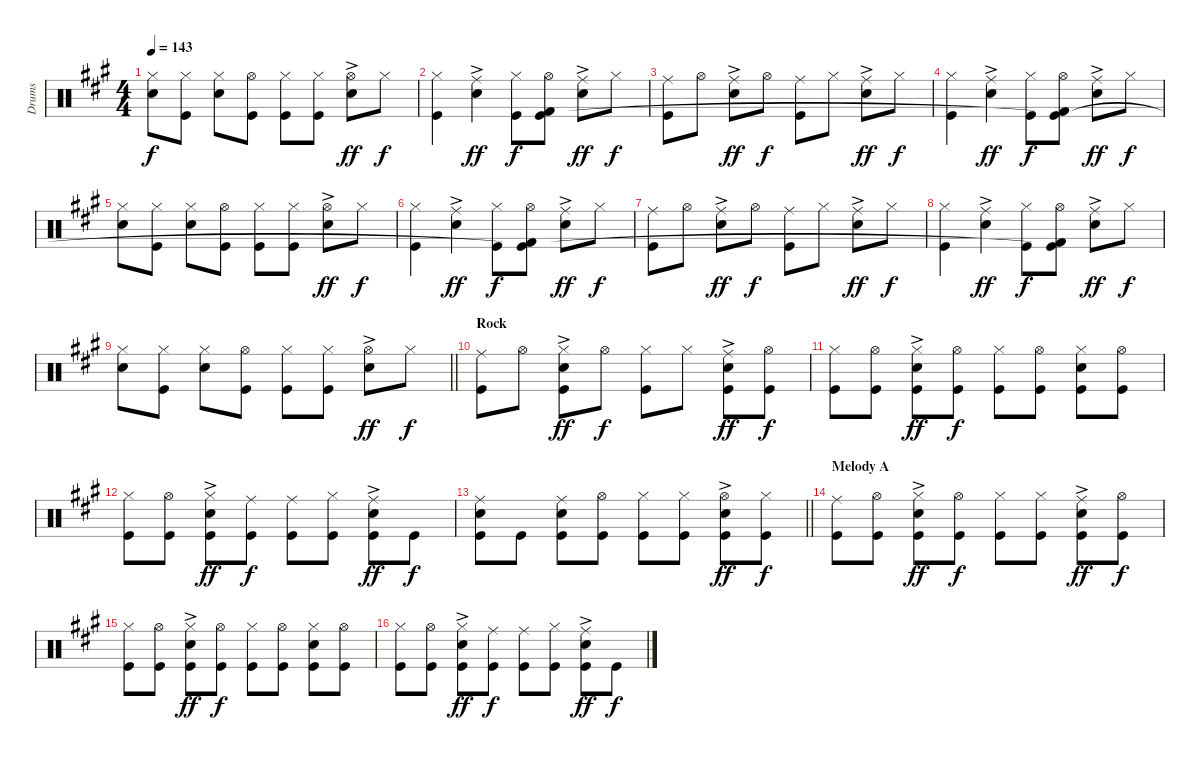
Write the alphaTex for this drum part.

\track ("Drums" "Drums") {instrument percussion}
\staff {score}
\articulation defaults
\ts (4 4)
\tempo 143
\clef neutral
\ks a
("Hi-Hat (closed)" "Snare (hit) 2").8{dy f} ("Hi-Hat (closed)" "Kick (hit)").8 ("Hi-Hat (closed)" "Snare (hit) 2").8 ("Hi-Hat (open)" "Kick (hit)").8 ("Hi-Hat (closed)" "Kick (hit)").8 ("Hi-Hat (closed)" "Kick (hit)").8 ("Hi-Hat (open)" "Snare (hit) 2"{ac}).8{dy ff} "Hi-Hat (closed)".8{dy f} |
("Hi-Hat (closed)" "Kick (hit)").4 ("Ride (middle)" "Snare (hit) 2"{ac}).4{dy ff} ("Hi-Hat (closed)" "Kick (hit)").8{dy f} ("Hi-Hat (open)" "Kick (hit) 2" "Kick (hit)"{t}).8 ("Ride (middle)"{ac} "Snare (hit) 2").8{dy ff} "Hi-Hat (closed)".8{dy f} |
("Ride (middle)" "Kick (hit)").8 "Hi-Hat (open)".8 ("Ride (middle)" "Snare (hit) 2"{ac}).8{dy ff} "Hi-Hat (open)".8{dy f} ("Ride (middle)" "Kick (hit)").8 "Hi-Hat (closed)".8 ("Ride (middle)"{ac} "Snare (hit) 2").8{dy ff} "Hi-Hat (closed)".8{dy f} |
("Hi-Hat (closed)" "Kick (hit)").4 ("Ride (middle)" "Snare (hit) 2"{ac}).4{dy ff} ("Hi-Hat (closed)" "Kick (hit)").8{dy f} ("Hi-Hat (open)" "Kick (hit) 2" "Kick (hit)"{t}).8 ("Ride (middle)"{ac} "Snare (hit) 2").8{dy ff} "Hi-Hat (closed)".8{dy f} |
("Hi-Hat (closed)" "Snare (hit) 2").8 ("Hi-Hat (closed)" "Kick (hit)").8 ("Hi-Hat (closed)" "Snare (hit) 2").8 ("Hi-Hat (open)" "Kick (hit)").8 ("Hi-Hat (closed)" "Kick (hit)").8 ("Hi-Hat (closed)" "Kick (hit)").8 ("Hi-Hat (open)" "Snare (hit) 2"{ac}).8{dy ff} "Hi-Hat (closed)".8{dy f} |
("Hi-Hat (closed)" "Kick (hit)").4 ("Ride (middle)" "Snare (hit) 2"{ac}).4{dy ff} ("Hi-Hat (closed)" "Kick (hit)").8{dy f} ("Hi-Hat (open)" "Kick (hit) 2" "Kick (hit)"{t}).8 ("Ride (middle)"{ac} "Snare (hit) 2").8{dy ff} "Hi-Hat (closed)".8{dy f} |
("Ride (middle)" "Kick (hit)").8 "Hi-Hat (open)".8 ("Ride (middle)" "Snare (hit) 2"{ac}).8{dy ff} "Hi-Hat (open)".8{dy f} ("Ride (middle)" "Kick (hit)").8 "Hi-Hat (closed)".8 ("Ride (middle)"{ac} "Snare (hit) 2").8{dy ff} "Hi-Hat (closed)".8{dy f} |
("Hi-Hat (closed)" "Kick (hit)").4 ("Ride (middle)" "Snare (hit) 2"{ac}).4{dy ff} ("Hi-Hat (closed)" "Kick (hit)").8{dy f} ("Hi-Hat (open)" "Kick (hit) 2" "Kick (hit)"{t}).8 ("Ride (middle)"{ac} "Snare (hit) 2").8{dy ff} "Hi-Hat (closed)".8{dy f} |
\barLineRight lightlight
("Hi-Hat (closed)" "Snare (hit) 2").8 ("Hi-Hat (closed)" "Kick (hit)").8 ("Hi-Hat (closed)" "Snare (hit) 2").8 ("Hi-Hat (open)" "Kick (hit)").8 ("Hi-Hat (closed)" "Kick (hit)").8 ("Hi-Hat (closed)" "Kick (hit)").8 ("Hi-Hat (open)" "Snare (hit) 2"{ac}).8{dy ff} "Hi-Hat (closed)".8{dy f} |
\section ("" "Rock")
("Ride (middle)" "Kick (hit)").8 "Hi-Hat (open)".8 ("Hi-Hat (closed)" "Snare (hit) 2"{ac} "Kick (hit)").8{dy ff} "Hi-Hat (open)".8{dy f} ("Hi-Hat (closed)" "Kick (hit)").8 "Hi-Hat (closed)".8 ("Ride (middle)"{ac} "Snare (hit) 2" "Kick (hit)").8{dy ff} ("Hi-Hat (open)" "Kick (hit)").8{dy f} |
("Hi-Hat (closed)" "Kick (hit)").8 ("Hi-Hat (open)" "Kick (hit)").8 ("Hi-Hat (closed)" "Snare (hit) 2"{ac} "Kick (hit)").8{dy ff} ("Hi-Hat (open)" "Kick (hit)").8{dy f} ("Hi-Hat (closed)" "Kick (hit)").8 ("Hi-Hat (open)" "Kick (hit)").8 ("Hi-Hat (closed)" "Snare (hit) 2" "Kick (hit)").8 ("Hi-Hat (open)" "Kick (hit)").8 |
("Hi-Hat (closed)" "Kick (hit)").8 ("Hi-Hat (open)" "Kick (hit)").8 ("Hi-Hat (closed)" "Snare (hit) 2"{ac} "Kick (hit)").8{dy ff} ("Ride (middle)" "Kick (hit)").8{dy f} ("Ride (middle)" "Kick (hit)").8 ("Hi-Hat (closed)" "Kick (hit)").8 ("Ride (middle)"{ac} "Snare (hit) 2" "Kick (hit)").8{dy ff} "Kick (hit)".8{dy f} |
\barLineRight lightlight
("Ride (middle)" "Snare (hit) 2" "Kick (hit)").8 "Kick (hit)".8 ("Ride (middle)" "Snare (hit) 2" "Kick (hit)").8 ("Hi-Hat (open)" "Kick (hit)").8 ("Hi-Hat (closed)" "Kick (hit)").8 ("Hi-Hat (closed)" "Kick (hit)").8 ("Hi-Hat (open)" "Snare (hit) 2"{ac} "Kick (hit)").8{dy ff} ("Hi-Hat (closed)" "Kick (hit)").8{dy f} |
\section ("" "Melody A")
("Ride (middle)" "Kick (hit)").8 ("Hi-Hat (open)" "Kick (hit)").8 ("Hi-Hat (closed)" "Snare (hit) 2"{ac} "Kick (hit)").8{dy ff} ("Hi-Hat (open)" "Kick (hit)").8{dy f} ("Hi-Hat (closed)" "Kick (hit)").8 ("Hi-Hat (closed)" "Kick (hit)").8 ("Ride (middle)"{ac} "Snare (hit) 2" "Kick (hit)").8{dy ff} ("Hi-Hat (open)" "Kick (hit)").8{dy f} |
("Hi-Hat (closed)" "Kick (hit)").8 ("Hi-Hat (open)" "Kick (hit)").8 ("Hi-Hat (closed)" "Snare (hit) 2"{ac} "Kick (hit)").8{dy ff} ("Hi-Hat (open)" "Kick (hit)").8{dy f} ("Hi-Hat (closed)" "Kick (hit)").8 ("Hi-Hat (open)" "Kick (hit)").8 ("Hi-Hat (closed)" "Snare (hit) 2" "Kick (hit)").8 ("Hi-Hat (open)" "Kick (hit)").8 |
("Hi-Hat (closed)" "Kick (hit)").8 ("Hi-Hat (open)" "Kick (hit)").8 ("Hi-Hat (closed)" "Snare (hit) 2"{ac} "Kick (hit)").8{dy ff} ("Ride (middle)" "Kick (hit)").8{dy f} ("Ride (middle)" "Kick (hit)").8 ("Hi-Hat (closed)" "Kick (hit)").8 ("Ride (middle)"{ac} "Snare (hit) 2" "Kick (hit)").8{dy ff} "Kick (hit)".8{dy f}
